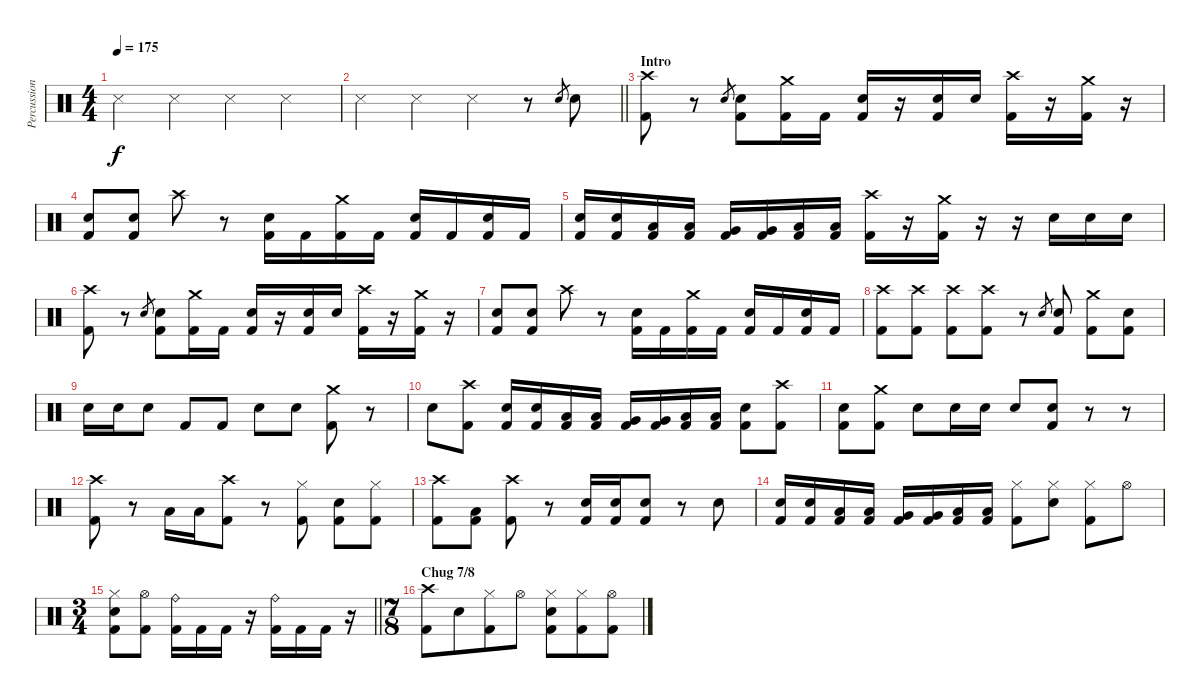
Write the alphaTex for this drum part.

\track ("Percussion" "Percussion") {instrument percussion}
\staff {score}
\articulation defaults
\ts (4 4)
\tempo 175
\clef neutral
\ks c "Snare (side stick) 3".4{dy f} "Snare (side stick) 3".4 "Snare (side stick) 3".4 "Snare (side stick) 3".4
|
\barLineRight lightlight "Snare (side stick) 3".4 "Snare (side stick) 3".4 "Snare (side stick) 3".4
r.8 "Electric Snare (hit)".8{gr} "Electric Snare (hit)".8 |
\section ("" "Intro")
("Crash high (hit)" "Kick (hit) 2").8 r.8 "Electric Snare (hit)".8{gr} ("Electric Snare (hit)" "Kick (hit) 2").8 ("Crash medium (hit)" "Kick (hit) 2").16 "Kick (hit) 2".16 ("Electric Snare (hit)" "Kick (hit) 2").16 r.16 ("Electric Snare (hit)" "Kick (hit) 2").16 "Electric Snare (hit)".16 ("Crash high (hit)" "Kick (hit) 2").16 r.16 ("Crash medium (hit)" "Kick (hit) 2").16 r.16 |
("Electric Snare (hit)" "Kick (hit) 2").8 ("Electric Snare (hit)" "Kick (hit) 2").8 "Crash high (hit)".8 r.8 ("Electric Snare (hit)" "Kick (hit) 2").16 "Kick (hit) 2".16 ("Crash medium (hit)" "Kick (hit) 2").16 "Kick (hit) 2".16 ("Electric Snare (hit)" "Kick (hit) 2").16 "Kick (hit) 2".16 ("Electric Snare (hit)" "Kick (hit) 2").16 "Kick (hit) 2".16 |
("Electric Snare (hit)" "Kick (hit) 2").16 ("Electric Snare (hit)" "Kick (hit) 2").16 ("Low Tom (hit)" "Kick (hit) 2").16 ("Low Tom (hit)" "Kick (hit) 2").16 ("Very Low Tom (hit)" "Kick (hit) 2").16 ("Very Low Tom (hit)" "Kick (hit) 2").16 ("Low Floor Tom (hit)" "Kick (hit) 2").16 ("Low Floor Tom (hit)" "Kick (hit) 2").16 ("Crash high (hit)" "Kick (hit) 2").16 r.16 ("Crash medium (hit)" "Kick (hit) 2").16 r.16 r.16 "Electric Snare (hit)".16 "Electric Snare (hit)".16 "Electric Snare (hit)".16 |
("Crash high (hit)" "Kick (hit) 2").8 r.8 "Electric Snare (hit)".8{gr} ("Electric Snare (hit)" "Kick (hit) 2").8 ("Crash medium (hit)" "Kick (hit) 2").16 "Kick (hit) 2".16 ("Electric Snare (hit)" "Kick (hit) 2").16 r.16 ("Electric Snare (hit)" "Kick (hit) 2").16 "Electric Snare (hit)".16 ("Crash high (hit)" "Kick (hit) 2").16 r.16 ("Crash medium (hit)" "Kick (hit) 2").16 r.16 |
("Electric Snare (hit)" "Kick (hit) 2").8 ("Electric Snare (hit)" "Kick (hit) 2").8 "Crash high (hit)".8 r.8 ("Electric Snare (hit)" "Kick (hit) 2").16 "Kick (hit) 2".16 ("Crash medium (hit)" "Kick (hit) 2").16 "Kick (hit) 2".16 ("Electric Snare (hit)" "Kick (hit) 2").16 "Kick (hit) 2".16 ("Electric Snare (hit)" "Kick (hit) 2").16 "Kick (hit) 2".16 |
("Crash high (hit)" "Kick (hit) 2").8 ("Crash high (hit)" "Kick (hit) 2").8 ("Crash high (hit)" "Kick (hit) 2").8 ("Crash high (hit)" "Kick (hit) 2").8 r.8 "Electric Snare (hit)".8{gr} ("Electric Snare (hit)" "Kick (hit) 2").8 ("Crash medium (hit)" "Kick (hit) 2").8 ("Electric Snare (hit)" "Kick (hit) 2").8 |
"Electric Snare (hit)".16 "Electric Snare (hit)".16 "Electric Snare (hit)".8 "Kick (hit) 2".8 "Kick (hit) 2".8 "Electric Snare (hit)".8 "Electric Snare (hit)".8 ("Crash medium (hit)" "Kick (hit) 2").8 r.8 |
"Electric Snare (hit)".8 ("Crash high (hit)" "Kick (hit) 2").8 ("Electric Snare (hit)" "Kick (hit) 2").16 ("Electric Snare (hit)" "Kick (hit) 2").16 ("Low Tom (hit)" "Kick (hit) 2").16 ("Low Tom (hit)" "Kick (hit) 2").16 ("Very Low Tom (hit)" "Kick (hit) 2").16 ("Very Low Tom (hit)" "Kick (hit) 2").16 ("Low Floor Tom (hit)" "Kick (hit) 2").16 ("Low Floor Tom (hit)" "Kick (hit) 2").16 ("Electric Snare (hit)" "Kick (hit) 2").8 ("Crash high (hit)" "Kick (hit) 2").8 |
("Electric Snare (hit)" "Kick (hit) 2").8 ("Crash medium (hit)" "Kick (hit) 2").8 "Electric Snare (hit)".8 "Electric Snare (hit)".16 "Electric Snare (hit)".16 "Electric Snare (hit)".8 ("Electric Snare (hit)" "Kick (hit) 2").8 r.8 r.8 |
("Crash high (hit)" "Kick (hit) 2").8 r.8 "Low Tom (hit)".16 "Low Tom (hit)".16 ("Crash high (hit)" "Kick (hit) 2").8 r.8 ("Hi-Hat (closed)" "Kick (hit) 2").8 ("Electric Snare (hit)" "Kick (hit) 2").8 ("Hi-Hat (closed)" "Kick (hit) 2").8 |
("Crash high (hit)" "Kick (hit) 2").8 ("Low Floor Tom (hit)" "Kick (hit) 2").8 ("Crash high (hit)" "Kick (hit) 2").8 r.8 ("Electric Snare (hit)" "Kick (hit) 2").16 ("Electric Snare (hit)" "Kick (hit) 2").16 ("Electric Snare (hit)" "Kick (hit) 2").8 r.8 "Electric Snare (hit)".8 |
("Electric Snare (hit)" "Kick (hit) 2").16 ("Electric Snare (hit)" "Kick (hit) 2").16 ("Low Tom (hit)" "Kick (hit) 2").16 ("Low Tom (hit)" "Kick (hit) 2").16 ("Very Low Tom (hit)" "Kick (hit) 2").16 ("Very Low Tom (hit)" "Kick (hit) 2").16 ("Low Floor Tom (hit)" "Kick (hit) 2").16 ("Low Floor Tom (hit)" "Kick (hit) 2").16 ("Hi-Hat (closed)" "Kick (hit) 2").8 ("Hi-Hat (closed)" "Electric Snare (hit)").8 ("Hi-Hat (closed)" "Kick (hit) 2").8 "Hi-Hat (open)".8 |
\ts (3 4)
\barLineRight lightlight
("Hi-Hat (closed)" "Electric Snare (hit)" "Kick (hit) 2").8 ("Hi-Hat (open)" "Kick (hit) 2").8 ("Ride (bell)" "Kick (hit) 2").16 "Kick (hit) 2".16 "Kick (hit) 2".16 r.16 ("Ride (bell)" "Kick (hit) 2").16 "Kick (hit) 2".16 "Kick (hit) 2".16 r.16 |
\ts (7 8)
\section ("" "Chug 7/8")
("Crash high (hit)" "Kick (hit) 2").8 "Electric Snare (hit)".8 ("Hi-Hat (closed)" "Kick (hit) 2").8 "Hi-Hat (open)".8 ("Hi-Hat (closed)" "Electric Snare (hit)" "Kick (hit) 2").8 ("Hi-Hat (closed)" "Kick (hit) 2").8 ("Hi-Hat (open)" "Kick (hit) 2").8
